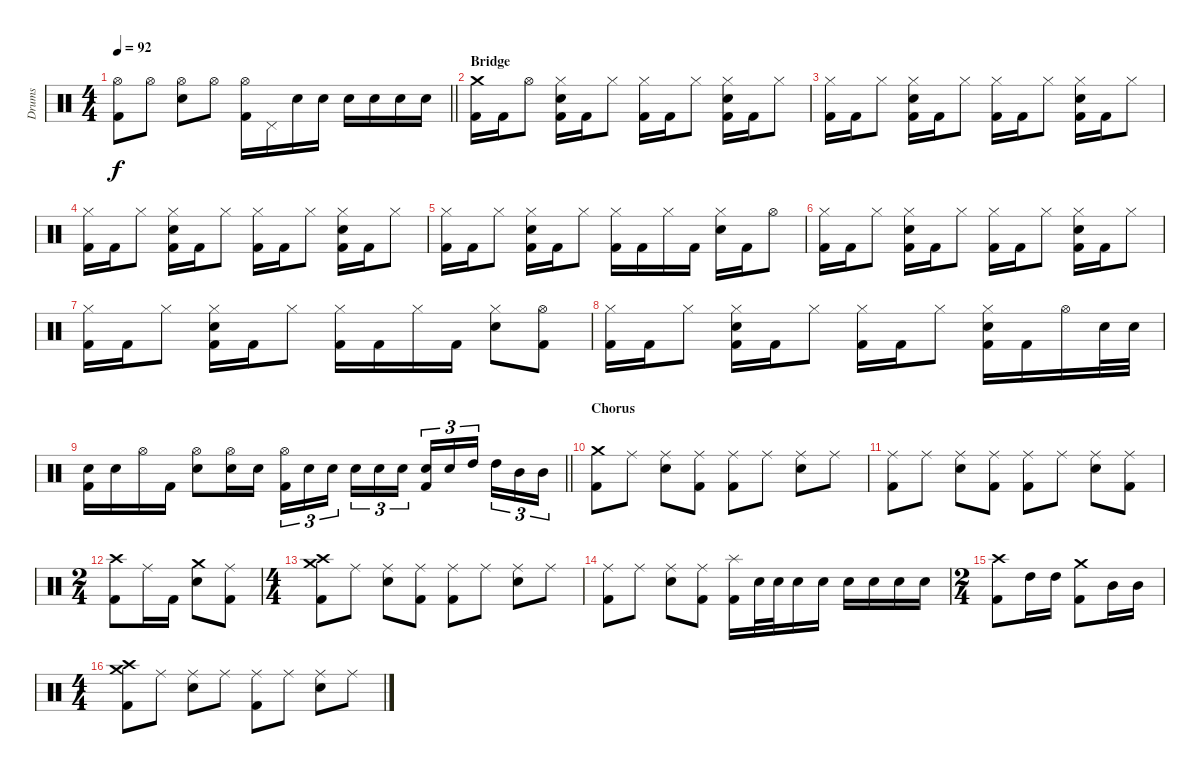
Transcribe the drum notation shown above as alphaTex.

\track ("Drums" "Drums") {instrument percussion}
\staff {score}
\articulation defaults
\ts (4 4)
\tempo 92
\clef neutral
\barLineRight lightlight
\ks c
("Hi-Hat (open)" "Kick (hit) 2").8{dy f} "Hi-Hat (open)".8 ("Hi-Hat (open)" "Electric Snare (hit)").8 "Hi-Hat (open)".8 ("Hi-Hat (open)" "Kick (hit) 2").16 "Pedal Hi-Hat (hit)".16 "Electric Snare (hit)".16 "Electric Snare (hit)".16 "Electric Snare (hit)".16 "Electric Snare (hit)".16 "Electric Snare (hit)".16 "Electric Snare (hit)".16 |
\section ("" "Bridge")
("Crash medium (hit)" "Kick (hit) 2").16 "Kick (hit) 2".16 "Hi-Hat (open)".8 ("Hi-Hat (closed)" "Electric Snare (hit)" "Kick (hit) 2").16 "Kick (hit) 2".16 "Hi-Hat (closed)".8 ("Hi-Hat (closed)" "Kick (hit) 2").16 "Kick (hit) 2".16 "Hi-Hat (closed)".8 ("Hi-Hat (closed)" "Electric Snare (hit)" "Kick (hit) 2").16 "Kick (hit) 2".16 "Hi-Hat (closed)".8 |
("Hi-Hat (closed)" "Kick (hit) 2").16 "Kick (hit) 2".16 "Hi-Hat (closed)".8 ("Hi-Hat (closed)" "Electric Snare (hit)" "Kick (hit) 2").16 "Kick (hit) 2".16 "Hi-Hat (closed)".8 ("Hi-Hat (closed)" "Kick (hit) 2").16 "Kick (hit) 2".16 "Hi-Hat (closed)".8 ("Hi-Hat (closed)" "Electric Snare (hit)" "Kick (hit) 2").16 "Kick (hit) 2".16 "Hi-Hat (closed)".8 |
("Hi-Hat (closed)" "Kick (hit) 2").16 "Kick (hit) 2".16 "Hi-Hat (closed)".8 ("Hi-Hat (closed)" "Electric Snare (hit)" "Kick (hit) 2").16 "Kick (hit) 2".16 "Hi-Hat (closed)".8 ("Hi-Hat (closed)" "Kick (hit) 2").16 "Kick (hit) 2".16 "Hi-Hat (closed)".8 ("Hi-Hat (closed)" "Electric Snare (hit)" "Kick (hit) 2").16 "Kick (hit) 2".16 "Hi-Hat (closed)".8 |
("Hi-Hat (closed)" "Kick (hit) 2").16 "Kick (hit) 2".16 "Hi-Hat (closed)".8 ("Hi-Hat (closed)" "Electric Snare (hit)" "Kick (hit) 2").16 "Kick (hit) 2".16 "Hi-Hat (closed)".8 ("Hi-Hat (closed)" "Kick (hit) 2").16 "Kick (hit) 2".16 "Hi-Hat (closed)".16 "Kick (hit) 2".16 ("Hi-Hat (closed)" "Electric Snare (hit)").16 "Kick (hit) 2".16 "Hi-Hat (open)".8 |
("Hi-Hat (closed)" "Kick (hit) 2").16 "Kick (hit) 2".16 "Hi-Hat (closed)".8 ("Hi-Hat (closed)" "Electric Snare (hit)" "Kick (hit) 2").16 "Kick (hit) 2".16 "Hi-Hat (closed)".8 ("Hi-Hat (closed)" "Kick (hit) 2").16 "Kick (hit) 2".16 "Hi-Hat (closed)".8 ("Hi-Hat (closed)" "Electric Snare (hit)" "Kick (hit) 2").16 "Kick (hit) 2".16 "Hi-Hat (closed)".8 |
("Hi-Hat (closed)" "Kick (hit) 2").16 "Kick (hit) 2".16 "Hi-Hat (closed)".8 ("Hi-Hat (closed)" "Electric Snare (hit)" "Kick (hit) 2").16 "Kick (hit) 2".16 "Hi-Hat (closed)".8 ("Hi-Hat (closed)" "Kick (hit) 2").16 "Kick (hit) 2".16 "Hi-Hat (closed)".16 "Kick (hit) 2".16 ("Hi-Hat (closed)" "Electric Snare (hit)").8 ("Hi-Hat (open)" "Kick (hit) 2").8 |
("Hi-Hat (closed)" "Kick (hit) 2").16 "Kick (hit) 2".16 "Hi-Hat (closed)".8 ("Hi-Hat (closed)" "Electric Snare (hit)" "Kick (hit) 2").16 "Kick (hit) 2".16 "Hi-Hat (closed)".8 ("Hi-Hat (closed)" "Kick (hit) 2").16 "Kick (hit) 2".16 "Hi-Hat (closed)".8 ("Hi-Hat (closed)" "Electric Snare (hit)" "Kick (hit) 2").16 "Kick (hit) 2".16 "Hi-Hat (open)".16 "Electric Snare (hit)".32 "Electric Snare (hit)".32 |
\barLineRight lightlight
("Electric Snare (hit)" "Kick (hit) 2").16 "Electric Snare (hit)".16 "Hi-Hat (open)".16 "Kick (hit) 2".16 ("Hi-Hat (open)" "Electric Snare (hit)").8 ("Hi-Hat (open)" "Electric Snare (hit)").16 "Electric Snare (hit)".16 ("Hi-Hat (open)" "Kick (hit) 2").16{tu (3 2)} "Electric Snare (hit)".16{tu (3 2)} "Electric Snare (hit)".16{tu (3 2) beam splitsecondary} "Electric Snare (hit)".16{tu (3 2)} "Electric Snare (hit)".16{tu (3 2)} "Electric Snare (hit)".16{tu (3 2)} ("Electric Snare (hit)" "Kick (hit) 2").16{tu (3 2)} "Electric Snare (hit)".16{tu (3 2)} "High Tom (hit)".16{tu (3 2) beam splitsecondary} "High Tom (hit)".16{tu (3 2)} "Mid Tom (hit)".16{tu (3 2)} "Mid Tom (hit)".16{tu (3 2)} |
\section ("" "Chorus")
("Crash medium (hit)" "Kick (hit) 2").8 "Ride (middle)".8 ("Ride (middle)" "Electric Snare (hit)").8 ("Ride (middle)" "Kick (hit) 2").8 ("Ride (middle)" "Kick (hit) 2").8 "Ride (middle)".8 ("Ride (middle)" "Electric Snare (hit)").8 "Ride (middle)".8 |
("Ride (middle)" "Kick (hit) 2").8 "Ride (middle)".8 ("Ride (middle)" "Electric Snare (hit)").8 ("Ride (middle)" "Kick (hit) 2").8 ("Ride (middle)" "Kick (hit) 2").8 "Ride (middle)".8 ("Ride (middle)" "Electric Snare (hit)").8 ("Ride (middle)" "Kick (hit) 2").8 |
\ts (2 4)
("Crash high (hit)" "Kick (hit) 2").8 "Ride (middle)".16 "Kick (hit) 2".16 ("Crash medium (hit)" "Electric Snare (hit)").8 ("Ride (middle)" "Kick (hit) 2").8 |
\ts (4 4)
("Crash medium (hit)" "Crash high (hit)" "Kick (hit) 2").8 "Ride (middle)".8 ("Ride (middle)" "Electric Snare (hit)").8 ("Ride (middle)" "Kick (hit) 2").8 ("Ride (middle)" "Kick (hit) 2").8 "Ride (middle)".8 ("Ride (middle)" "Electric Snare (hit)").8 "Ride (middle)".8 |
("Ride (middle)" "Kick (hit) 2").8 "Ride (middle)".8 ("Ride (middle)" "Electric Snare (hit)").8 ("Ride (middle)" "Kick (hit) 2").8 ("Splash (hit)" "Kick (hit) 2").16 "Electric Snare (hit)".32 "Electric Snare (hit)".32 "Electric Snare (hit)".16 "Electric Snare (hit)".16 "Electric Snare (hit)".16 "Electric Snare (hit)".16 "Electric Snare (hit)".16 "Electric Snare (hit)".16 |
\ts (2 4)
("Crash high (hit)" "Kick (hit) 2").8 "High Tom (hit)".16 "High Tom (hit)".16 ("Crash medium (hit)" "Kick (hit) 2").8 "Mid Tom (hit)".16 "Mid Tom (hit)".16 |
\ts (4 4)
("Crash medium (hit)" "Crash high (hit)" "Kick (hit) 2").8 "Ride (middle)".8 ("Ride (middle)" "Electric Snare (hit)").8 "Ride (middle)".8 ("Ride (middle)" "Kick (hit) 2").8 "Ride (middle)".8 ("Ride (middle)" "Electric Snare (hit)").8 "Ride (middle)".8
